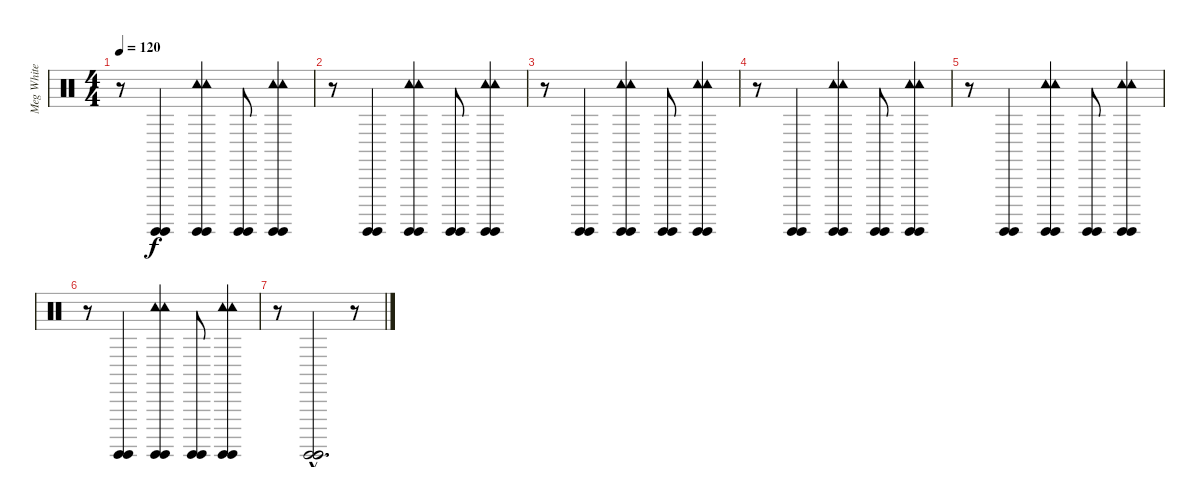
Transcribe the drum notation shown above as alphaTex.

\track ("Meg White" "Meg White") {instrument percussion}
\staff {score}
\articulation defaults
\ts (4 4)
\tempo 120
\clef neutral
\ks c
r.8{dy f} ("Surdo (hit)" "Surdo (hit)").4 ("Surdo (hit)" "Surdo (hit)" "Tambourine (hit)" "Tambourine (hit)").4 ("Surdo (hit)" "Surdo (hit)").8 ("Surdo (hit)" "Surdo (hit)" "Tambourine (hit)" "Tambourine (hit)").4 |
r.8 ("Surdo (hit)" "Surdo (hit)").4 ("Surdo (hit)" "Surdo (hit)" "Tambourine (hit)" "Tambourine (hit)").4 ("Surdo (hit)" "Surdo (hit)").8 ("Surdo (hit)" "Surdo (hit)" "Tambourine (hit)" "Tambourine (hit)").4 |
r.8 ("Surdo (hit)" "Surdo (hit)").4 ("Surdo (hit)" "Surdo (hit)" "Tambourine (hit)" "Tambourine (hit)").4 ("Surdo (hit)" "Surdo (hit)").8 ("Surdo (hit)" "Surdo (hit)" "Tambourine (hit)" "Tambourine (hit)").4 |
r.8 ("Surdo (hit)" "Surdo (hit)").4 ("Surdo (hit)" "Surdo (hit)" "Tambourine (hit)" "Tambourine (hit)").4 ("Surdo (hit)" "Surdo (hit)").8 ("Surdo (hit)" "Surdo (hit)" "Tambourine (hit)" "Tambourine (hit)").4 |
r.8 ("Surdo (hit)" "Surdo (hit)").4 ("Surdo (hit)" "Surdo (hit)" "Tambourine (hit)" "Tambourine (hit)").4 ("Surdo (hit)" "Surdo (hit)").8 ("Surdo (hit)" "Surdo (hit)" "Tambourine (hit)" "Tambourine (hit)").4 |
r.8 ("Surdo (hit)" "Surdo (hit)").4 ("Surdo (hit)" "Surdo (hit)" "Tambourine (hit)" "Tambourine (hit)").4 ("Surdo (hit)" "Surdo (hit)").8 ("Surdo (hit)" "Surdo (hit)" "Tambourine (hit)" "Tambourine (hit)").4 |
r.8 ("Surdo (hit)"{hac} "Surdo (hit)"{hac} "Surdo (hit)"{hac}).2{d} r.8
